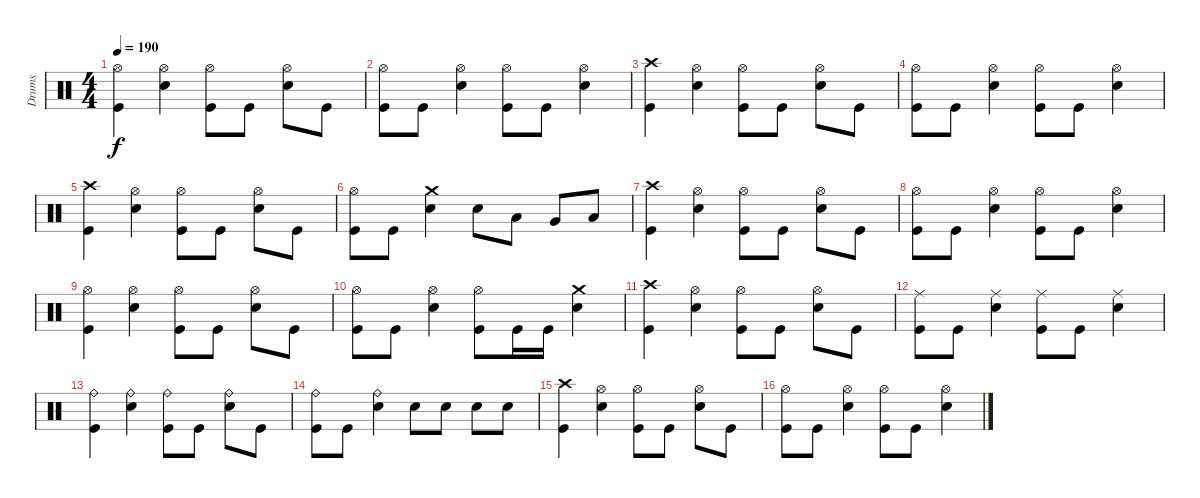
\track ("Drums" "Drums") {instrument percussion}
\staff {score}
\articulation defaults
\ts (4 4)
\tempo 190
\clef neutral
\ks c
("Hi-Hat (open)" "Kick (hit)").4{dy f} ("Hi-Hat (open)" "Electric Snare (hit)").4 ("Hi-Hat (open)" "Kick (hit)").8 "Kick (hit)".8 ("Hi-Hat (open)" "Electric Snare (hit)").8 "Kick (hit)".8 |
("Hi-Hat (open)" "Kick (hit)").8 "Kick (hit)".8 ("Hi-Hat (open)" "Electric Snare (hit)").4 ("Hi-Hat (open)" "Kick (hit)").8 "Kick (hit)".8 ("Hi-Hat (open)" "Electric Snare (hit)").4 |
("Crash high (hit)" "Kick (hit)").4 ("Hi-Hat (open)" "Electric Snare (hit)").4 ("Hi-Hat (open)" "Kick (hit)").8 "Kick (hit)".8 ("Hi-Hat (open)" "Electric Snare (hit)").8 "Kick (hit)".8 |
("Hi-Hat (open)" "Kick (hit)").8 "Kick (hit)".8 ("Hi-Hat (open)" "Electric Snare (hit)").4 ("Hi-Hat (open)" "Kick (hit)").8 "Kick (hit)".8 ("Hi-Hat (open)" "Electric Snare (hit)").4 |
("Crash high (hit)" "Kick (hit)").4 ("Hi-Hat (open)" "Electric Snare (hit)").4 ("Hi-Hat (open)" "Kick (hit)").8 "Kick (hit)".8 ("Hi-Hat (open)" "Electric Snare (hit)").8 "Kick (hit)".8 |
("Hi-Hat (open)" "Kick (hit)").8 "Kick (hit)".8 ("Crash medium (hit)" "Electric Snare (hit)").4 "Electric Snare (hit)".8 "Low Tom (hit)".8 "Very Low Tom (hit)".8 "Low Floor Tom (hit)".8 |
("Crash high (hit)" "Kick (hit)").4 ("Hi-Hat (open)" "Electric Snare (hit)").4 ("Hi-Hat (open)" "Kick (hit)").8 "Kick (hit)".8 ("Hi-Hat (open)" "Electric Snare (hit)").8 "Kick (hit)".8 |
("Hi-Hat (open)" "Kick (hit)").8 "Kick (hit)".8 ("Hi-Hat (open)" "Electric Snare (hit)").4 ("Hi-Hat (open)" "Kick (hit)").8 "Kick (hit)".8 ("Hi-Hat (open)" "Electric Snare (hit)").4 |
("Hi-Hat (open)" "Kick (hit)").4 ("Hi-Hat (open)" "Electric Snare (hit)").4 ("Hi-Hat (open)" "Kick (hit)").8 "Kick (hit)".8 ("Hi-Hat (open)" "Electric Snare (hit)").8 "Kick (hit)".8 |
("Hi-Hat (open)" "Kick (hit)").8 "Kick (hit)".8 ("Hi-Hat (open)" "Electric Snare (hit)").4 ("Hi-Hat (open)" "Kick (hit)").8 "Kick (hit)".16 "Kick (hit)".16 ("Crash medium (hit)" "Electric Snare (hit)").4 |
("Crash high (hit)" "Kick (hit)").4 ("Hi-Hat (open)" "Electric Snare (hit)").4 ("Hi-Hat (open)" "Kick (hit)").8 "Kick (hit)".8 ("Hi-Hat (open)" "Electric Snare (hit)").8 "Kick (hit)".8 |
("Ride (middle)" "Kick (hit)").8 "Kick (hit)".8 ("Ride (middle)" "Electric Snare (hit)").4 ("Ride (middle)" "Kick (hit)").8 "Kick (hit)".8 ("Ride (middle)" "Electric Snare (hit)").4 |
("Ride (bell)" "Kick (hit)").4 ("Ride (bell)" "Electric Snare (hit)").4 ("Ride (bell)" "Kick (hit)").8 "Kick (hit)".8 ("Ride (bell)" "Electric Snare (hit)").8 "Kick (hit)".8 |
("Ride (bell)" "Kick (hit)").8 "Kick (hit)".8 ("Ride (bell)" "Electric Snare (hit)").4 "Electric Snare (hit)".8 "Electric Snare (hit)".8 "Electric Snare (hit)".8 "Electric Snare (hit)".8 |
("Crash high (hit)" "Kick (hit)").4 ("Hi-Hat (open)" "Electric Snare (hit)").4 ("Hi-Hat (open)" "Kick (hit)").8 "Kick (hit)".8 ("Hi-Hat (open)" "Electric Snare (hit)").8 "Kick (hit)".8 |
("Hi-Hat (open)" "Kick (hit)").8 "Kick (hit)".8 ("Hi-Hat (open)" "Electric Snare (hit)").4 ("Hi-Hat (open)" "Kick (hit)").8 "Kick (hit)".8 ("Hi-Hat (open)" "Electric Snare (hit)").4
